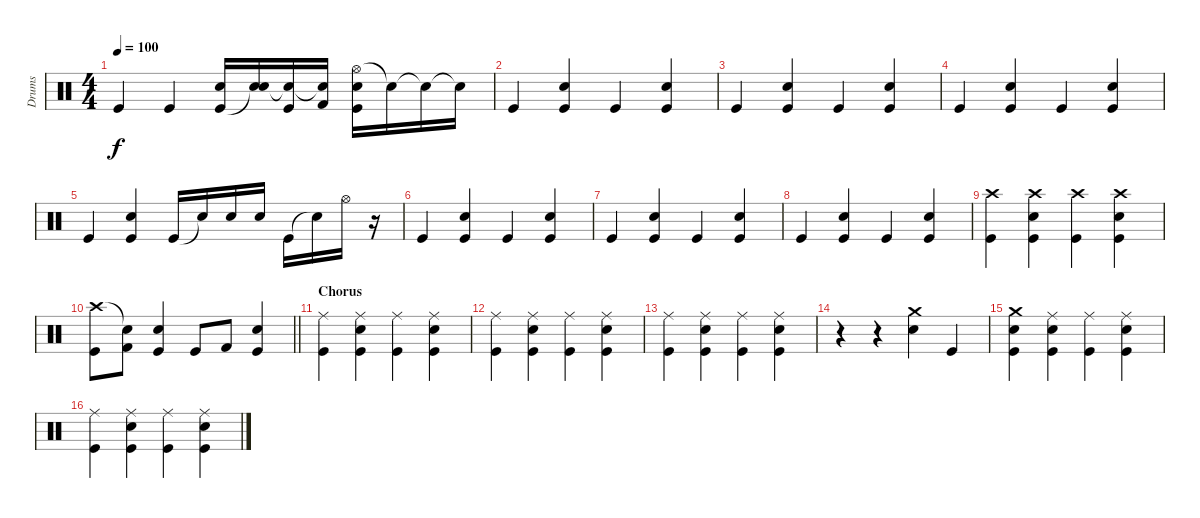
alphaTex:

\track ("Drums" "Drums") {instrument percussion}
\staff {score}
\articulation defaults
\ts (4 4)
\tempo 100
\clef neutral
\ks c "Kick (hit)".4{dy f} "Kick (hit)".4
("Kick (hit)" "Snare (hit) 2").16 ("Snare (hit)"{t} "Snare (hit) 2").16 ("Snare (hit)"{t} "Kick (hit)").16 ("Snare (hit)"{t} "Kick (hit) 2").16 ("Hi-Hat (open)" "Kick (hit)" "Snare (hit) 2").16 "Snare (hit)"{t}.16 "Snare (hit)"{t}.16 "Snare (hit)"{t}.16 |
"Kick (hit)".4 ("Kick (hit)" "Snare (hit) 2").4 "Kick (hit)".4 ("Kick (hit)" "Snare (hit) 2").4 |
"Kick (hit)".4 ("Kick (hit)" "Snare (hit) 2").4 "Kick (hit)".4 ("Kick (hit)" "Snare (hit) 2").4 |
"Kick (hit)".4 ("Kick (hit)" "Snare (hit) 2").4 "Kick (hit)".4 ("Kick (hit)" "Snare (hit) 2").4 |
"Kick (hit)".4 ("Kick (hit)" "Snare (hit) 2").4 "Kick (hit)".16 "Snare (hit) 2"{t}.16 "Snare (hit) 2".16 "Snare (hit) 2".16 "Kick (hit)".16 "Snare (hit)"{t}.16 "Hi-Hat (open)".16 r.16 |
"Kick (hit)".4 ("Kick (hit)" "Snare (hit) 2").4 "Kick (hit)".4 ("Kick (hit)" "Snare (hit) 2").4 |
"Kick (hit)".4 ("Kick (hit)" "Snare (hit) 2").4 "Kick (hit)".4 ("Kick (hit)" "Snare (hit) 2").4 |
"Kick (hit)".4 ("Kick (hit)" "Snare (hit) 2").4 "Kick (hit)".4 ("Kick (hit)" "Snare (hit) 2").4 |
("Crash high (hit)" "Kick (hit)").4 ("Crash high (hit)" "Kick (hit)" "Snare (hit) 2").4 ("Crash high (hit)" "Kick (hit)").4 ("Crash high (hit)" "Kick (hit)" "Snare (hit) 2").4 |
\barLineRight lightlight
("Crash high (hit)" "Kick (hit)").8 ("Snare (hit)"{t} "Kick (hit) 2").8 ("Kick (hit)" "Snare (hit) 2").4 "Kick (hit)".8 "Kick (hit) 2".8 ("Kick (hit)" "Snare (hit) 2").4 |
\section ("" "Chorus")
("Ride (middle)" "Kick (hit)").4 ("Ride (middle)" "Kick (hit)" "Snare (hit) 2").4 ("Ride (middle)" "Kick (hit)").4 ("Ride (middle)" "Kick (hit)" "Snare (hit) 2").4 |
("Ride (middle)" "Kick (hit)").4 ("Ride (middle)" "Kick (hit)" "Snare (hit) 2").4 ("Ride (middle)" "Kick (hit)").4 ("Ride (middle)" "Kick (hit)" "Snare (hit) 2").4 |
("Ride (middle)" "Kick (hit)").4 ("Ride (middle)" "Kick (hit)" "Snare (hit) 2").4 ("Ride (middle)" "Kick (hit)").4 ("Ride (middle)" "Kick (hit)" "Snare (hit) 2").4 |
r.4 r.4 ("Crash medium (hit)" "Snare (hit) 2").4 "Kick (hit)".4 |
("Crash medium (hit)" "Snare (hit) 2" "Kick (hit)").4 ("Ride (middle)" "Kick (hit)" "Snare (hit) 2").4 ("Ride (middle)" "Kick (hit)").4 ("Ride (middle)" "Kick (hit)" "Snare (hit) 2").4 |
("Ride (middle)" "Kick (hit)").4 ("Ride (middle)" "Kick (hit)" "Snare (hit) 2").4 ("Ride (middle)" "Kick (hit)").4 ("Ride (middle)" "Kick (hit)" "Snare (hit) 2").4
